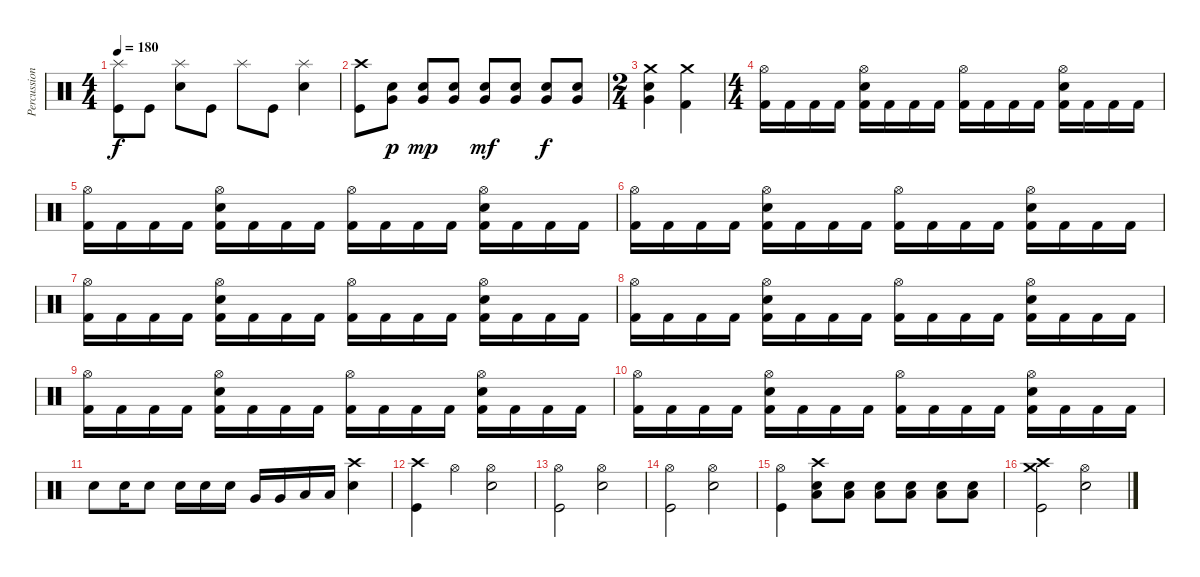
\track ("Percussion" "Percussion") {instrument percussion}
\staff {score}
\articulation defaults
\ts (4 4)
\tempo 180
\clef neutral
\ks c
("Splash (hit)" "Kick (hit)").8{dy f} "Kick (hit)".8 ("Splash (hit)" "Electric Snare (hit)").8 "Kick (hit)".8 "Splash (hit)".8 "Kick (hit)".8 ("Splash (hit)" "Electric Snare (hit)").4 |
("Crash high (hit)" "Kick (hit)").8 ("Snare (hit) 2" "Very Low Tom (hit)").8{dy p} ("Snare (hit) 2" "Very Low Tom (hit)").8{dy mp} ("Snare (hit) 2" "Very Low Tom (hit)").8 ("Snare (hit) 2" "Very Low Tom (hit)").8{dy mf} ("Snare (hit) 2" "Very Low Tom (hit)").8 ("Snare (hit) 2" "Very Low Tom (hit)").8{dy f} ("Snare (hit) 2" "Very Low Tom (hit)").8 |
\ts (2 4)
("Crash medium (hit)" "Snare (hit) 2" "Very Low Tom (hit)").4 ("Crash medium (hit)" "Kick (hit) 2").4 |
\ts (4 4)
("Hi-Hat (open)" "Kick (hit) 2").16 "Kick (hit) 2".16 "Kick (hit) 2".16 "Kick (hit) 2".16 ("Hi-Hat (open)" "Electric Snare (hit)" "Kick (hit) 2").16 "Kick (hit) 2".16 "Kick (hit) 2".16 "Kick (hit) 2".16 ("Hi-Hat (open)" "Kick (hit) 2").16 "Kick (hit) 2".16 "Kick (hit) 2".16 "Kick (hit) 2".16 ("Hi-Hat (open)" "Electric Snare (hit)" "Kick (hit) 2").16 "Kick (hit) 2".16 "Kick (hit) 2".16 "Kick (hit) 2".16 |
("Hi-Hat (open)" "Kick (hit) 2").16 "Kick (hit) 2".16 "Kick (hit) 2".16 "Kick (hit) 2".16 ("Hi-Hat (open)" "Electric Snare (hit)" "Kick (hit) 2").16 "Kick (hit) 2".16 "Kick (hit) 2".16 "Kick (hit) 2".16 ("Hi-Hat (open)" "Kick (hit) 2").16 "Kick (hit) 2".16 "Kick (hit) 2".16 "Kick (hit) 2".16 ("Hi-Hat (open)" "Electric Snare (hit)" "Kick (hit) 2").16 "Kick (hit) 2".16 "Kick (hit) 2".16 "Kick (hit) 2".16 |
("Hi-Hat (open)" "Kick (hit) 2").16 "Kick (hit) 2".16 "Kick (hit) 2".16 "Kick (hit) 2".16 ("Hi-Hat (open)" "Electric Snare (hit)" "Kick (hit) 2").16 "Kick (hit) 2".16 "Kick (hit) 2".16 "Kick (hit) 2".16 ("Hi-Hat (open)" "Kick (hit) 2").16 "Kick (hit) 2".16 "Kick (hit) 2".16 "Kick (hit) 2".16 ("Hi-Hat (open)" "Electric Snare (hit)" "Kick (hit) 2").16 "Kick (hit) 2".16 "Kick (hit) 2".16 "Kick (hit) 2".16 |
("Hi-Hat (open)" "Kick (hit) 2").16 "Kick (hit) 2".16 "Kick (hit) 2".16 "Kick (hit) 2".16 ("Hi-Hat (open)" "Electric Snare (hit)" "Kick (hit) 2").16 "Kick (hit) 2".16 "Kick (hit) 2".16 "Kick (hit) 2".16 ("Hi-Hat (open)" "Kick (hit) 2").16 "Kick (hit) 2".16 "Kick (hit) 2".16 "Kick (hit) 2".16 ("Hi-Hat (open)" "Electric Snare (hit)" "Kick (hit) 2").16 "Kick (hit) 2".16 "Kick (hit) 2".16 "Kick (hit) 2".16 |
("Hi-Hat (open)" "Kick (hit) 2").16 "Kick (hit) 2".16 "Kick (hit) 2".16 "Kick (hit) 2".16 ("Hi-Hat (open)" "Electric Snare (hit)" "Kick (hit) 2").16 "Kick (hit) 2".16 "Kick (hit) 2".16 "Kick (hit) 2".16 ("Hi-Hat (open)" "Kick (hit) 2").16 "Kick (hit) 2".16 "Kick (hit) 2".16 "Kick (hit) 2".16 ("Hi-Hat (open)" "Electric Snare (hit)" "Kick (hit) 2").16 "Kick (hit) 2".16 "Kick (hit) 2".16 "Kick (hit) 2".16 |
("Hi-Hat (open)" "Kick (hit) 2").16 "Kick (hit) 2".16 "Kick (hit) 2".16 "Kick (hit) 2".16 ("Hi-Hat (open)" "Electric Snare (hit)" "Kick (hit) 2").16 "Kick (hit) 2".16 "Kick (hit) 2".16 "Kick (hit) 2".16 ("Hi-Hat (open)" "Kick (hit) 2").16 "Kick (hit) 2".16 "Kick (hit) 2".16 "Kick (hit) 2".16 ("Hi-Hat (open)" "Electric Snare (hit)" "Kick (hit) 2").16 "Kick (hit) 2".16 "Kick (hit) 2".16 "Kick (hit) 2".16 |
("Hi-Hat (open)" "Kick (hit) 2").16 "Kick (hit) 2".16 "Kick (hit) 2".16 "Kick (hit) 2".16 ("Hi-Hat (open)" "Electric Snare (hit)" "Kick (hit) 2").16 "Kick (hit) 2".16 "Kick (hit) 2".16 "Kick (hit) 2".16 ("Hi-Hat (open)" "Kick (hit) 2").16 "Kick (hit) 2".16 "Kick (hit) 2".16 "Kick (hit) 2".16 ("Hi-Hat (open)" "Electric Snare (hit)" "Kick (hit) 2").16 "Kick (hit) 2".16 "Kick (hit) 2".16 "Kick (hit) 2".16 |
"Electric Snare (hit)".8 "Electric Snare (hit)".16 "Electric Snare (hit)".8 "Electric Snare (hit)".16 "Electric Snare (hit)".16 "Electric Snare (hit)".16 "Very Low Tom (hit)".16 "Very Low Tom (hit)".16 "Low Floor Tom (hit)".16 "Low Floor Tom (hit)".16 ("Crash high (hit)" "Electric Snare (hit)").4 |
("Crash high (hit)" "Kick (hit)").4 "Hi-Hat (open)".4 ("Hi-Hat (open)" "Snare (hit) 2").2 |
("Hi-Hat (open)" "Kick (hit)").2 ("Hi-Hat (open)" "Snare (hit) 2").2 |
("Hi-Hat (open)" "Kick (hit)").2 ("Hi-Hat (open)" "Snare (hit) 2").2 |
("Hi-Hat (open)" "Kick (hit)").4 ("Crash high (hit)" "Snare (hit) 2" "Low Floor Tom (hit)").8 ("Snare (hit) 2" "Low Floor Tom (hit)").8 ("Snare (hit) 2" "Low Floor Tom (hit)").8 ("Snare (hit) 2" "Low Floor Tom (hit)").8 ("Snare (hit) 2" "Low Floor Tom (hit)").8 ("Snare (hit) 2" "Low Floor Tom (hit)").8 |
("Crash medium (hit)" "Crash high (hit)" "Kick (hit)").2 ("Hi-Hat (open)" "Snare (hit) 2").2
